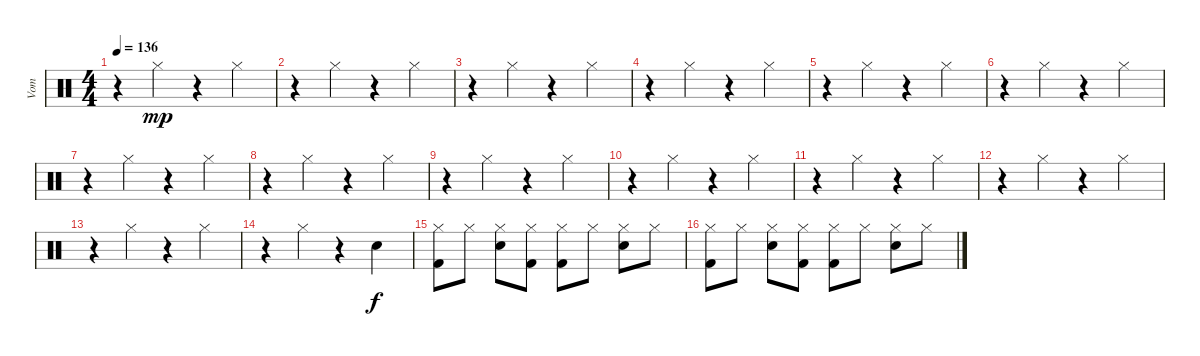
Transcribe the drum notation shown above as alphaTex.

\track ("Vom" "Vom") {instrument percussion}
\staff {score}
\articulation defaults
\ts (4 4)
\tempo 136
\clef neutral
\ks c
r.4{dy mp} "Hi-Hat (closed)".4 r.4 "Hi-Hat (closed)".4 |
r.4 "Hi-Hat (closed)".4 r.4 "Hi-Hat (closed)".4 |
r.4 "Hi-Hat (closed)".4 r.4 "Hi-Hat (closed)".4 |
r.4 "Hi-Hat (closed)".4 r.4 "Hi-Hat (closed)".4 |
r.4 "Hi-Hat (closed)".4 r.4 "Hi-Hat (closed)".4 |
r.4 "Hi-Hat (closed)".4 r.4 "Hi-Hat (closed)".4 |
r.4 "Hi-Hat (closed)".4 r.4 "Hi-Hat (closed)".4 |
r.4 "Hi-Hat (closed)".4 r.4 "Hi-Hat (closed)".4 |
r.4 "Hi-Hat (closed)".4 r.4 "Hi-Hat (closed)".4 |
r.4 "Hi-Hat (closed)".4 r.4 "Hi-Hat (closed)".4 |
r.4 "Hi-Hat (closed)".4 r.4 "Hi-Hat (closed)".4 |
r.4 "Hi-Hat (closed)".4 r.4 "Hi-Hat (closed)".4 |
r.4 "Hi-Hat (closed)".4 r.4 "Hi-Hat (closed)".4 |
r.4 "Hi-Hat (closed)".4 r.4 "Snare (hit) 2".4{dy f} |
("Hi-Hat (closed)" "Kick (hit) 2").8 "Hi-Hat (closed)".8 ("Hi-Hat (closed)" "Snare (hit) 2").8 ("Hi-Hat (closed)" "Kick (hit) 2").8 ("Hi-Hat (closed)" "Kick (hit) 2").8 "Hi-Hat (closed)".8 ("Hi-Hat (closed)" "Snare (hit) 2").8 "Hi-Hat (closed)".8 |
("Hi-Hat (closed)" "Kick (hit) 2").8 "Hi-Hat (closed)".8 ("Hi-Hat (closed)" "Snare (hit) 2").8 ("Hi-Hat (closed)" "Kick (hit) 2").8 ("Hi-Hat (closed)" "Kick (hit) 2").8 "Hi-Hat (closed)".8 ("Hi-Hat (closed)" "Snare (hit) 2").8 "Hi-Hat (closed)".8
